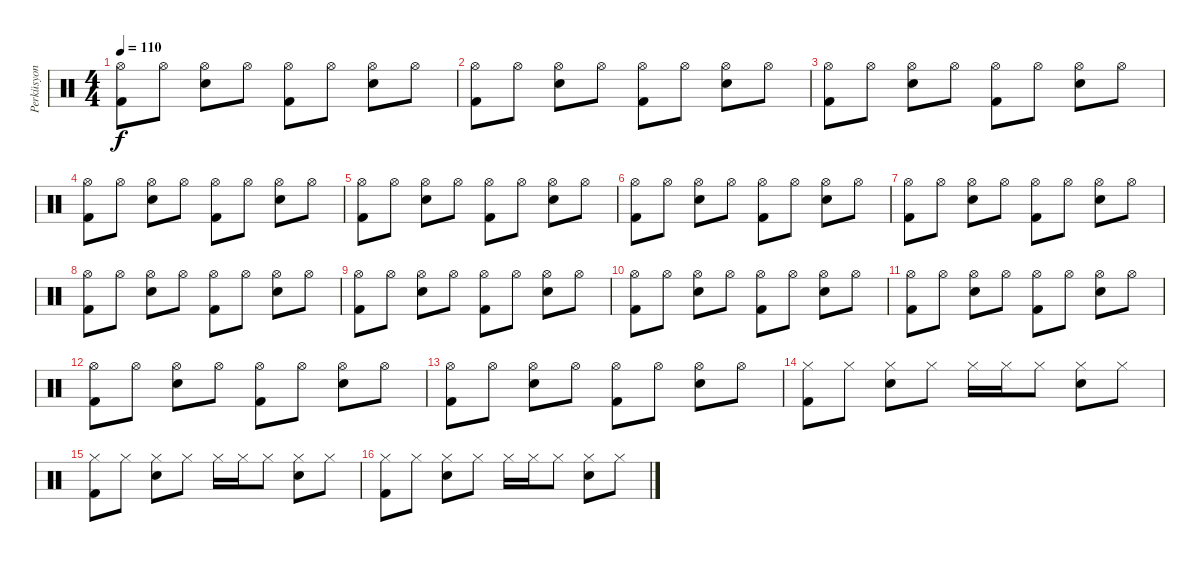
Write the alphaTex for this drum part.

\track ("Perküsyon" "Perküsyon") {instrument percussion}
\staff {score}
\articulation defaults
\ts (4 4)
\tempo 110
\clef neutral
\ks c
("Hi-Hat (open)" "Kick (hit) 2").8{dy f} "Hi-Hat (open)".8 ("Hi-Hat (open)" "Snare (hit) 2").8 "Hi-Hat (open)".8 ("Hi-Hat (open)" "Kick (hit) 2").8 "Hi-Hat (open)".8 ("Hi-Hat (open)" "Snare (hit) 2").8 "Hi-Hat (open)".8 |
("Hi-Hat (open)" "Kick (hit) 2").8 "Hi-Hat (open)".8 ("Hi-Hat (open)" "Snare (hit) 2").8 "Hi-Hat (open)".8 ("Hi-Hat (open)" "Kick (hit) 2").8 "Hi-Hat (open)".8 ("Hi-Hat (open)" "Snare (hit) 2").8 "Hi-Hat (open)".8 |
("Hi-Hat (open)" "Kick (hit) 2").8 "Hi-Hat (open)".8 ("Hi-Hat (open)" "Snare (hit) 2").8 "Hi-Hat (open)".8 ("Hi-Hat (open)" "Kick (hit) 2").8 "Hi-Hat (open)".8 ("Hi-Hat (open)" "Snare (hit) 2").8 "Hi-Hat (open)".8 |
("Hi-Hat (open)" "Kick (hit) 2").8 "Hi-Hat (open)".8 ("Hi-Hat (open)" "Snare (hit) 2").8 "Hi-Hat (open)".8 ("Hi-Hat (open)" "Kick (hit) 2").8 "Hi-Hat (open)".8 ("Hi-Hat (open)" "Snare (hit) 2").8 "Hi-Hat (open)".8 |
("Hi-Hat (open)" "Kick (hit) 2").8 "Hi-Hat (open)".8 ("Hi-Hat (open)" "Snare (hit) 2").8 "Hi-Hat (open)".8 ("Hi-Hat (open)" "Kick (hit) 2").8 "Hi-Hat (open)".8 ("Hi-Hat (open)" "Snare (hit) 2").8 "Hi-Hat (open)".8 |
("Hi-Hat (open)" "Kick (hit) 2").8 "Hi-Hat (open)".8 ("Hi-Hat (open)" "Snare (hit) 2").8 "Hi-Hat (open)".8 ("Hi-Hat (open)" "Kick (hit) 2").8 "Hi-Hat (open)".8 ("Hi-Hat (open)" "Snare (hit) 2").8 "Hi-Hat (open)".8 |
("Hi-Hat (open)" "Kick (hit) 2").8 "Hi-Hat (open)".8 ("Hi-Hat (open)" "Snare (hit) 2").8 "Hi-Hat (open)".8 ("Hi-Hat (open)" "Kick (hit) 2").8 "Hi-Hat (open)".8 ("Hi-Hat (open)" "Snare (hit) 2").8 "Hi-Hat (open)".8 |
("Hi-Hat (open)" "Kick (hit) 2").8 "Hi-Hat (open)".8 ("Hi-Hat (open)" "Snare (hit) 2").8 "Hi-Hat (open)".8 ("Hi-Hat (open)" "Kick (hit) 2").8 "Hi-Hat (open)".8 ("Hi-Hat (open)" "Snare (hit) 2").8 "Hi-Hat (open)".8 |
("Hi-Hat (open)" "Kick (hit) 2").8 "Hi-Hat (open)".8 ("Hi-Hat (open)" "Snare (hit) 2").8 "Hi-Hat (open)".8 ("Hi-Hat (open)" "Kick (hit) 2").8 "Hi-Hat (open)".8 ("Hi-Hat (open)" "Snare (hit) 2").8 "Hi-Hat (open)".8 |
("Hi-Hat (open)" "Kick (hit) 2").8 "Hi-Hat (open)".8 ("Hi-Hat (open)" "Snare (hit) 2").8 "Hi-Hat (open)".8 ("Hi-Hat (open)" "Kick (hit) 2").8 "Hi-Hat (open)".8 ("Hi-Hat (open)" "Snare (hit) 2").8 "Hi-Hat (open)".8 |
("Hi-Hat (open)" "Kick (hit) 2").8 "Hi-Hat (open)".8 ("Hi-Hat (open)" "Snare (hit) 2").8 "Hi-Hat (open)".8 ("Hi-Hat (open)" "Kick (hit) 2").8 "Hi-Hat (open)".8 ("Hi-Hat (open)" "Snare (hit) 2").8 "Hi-Hat (open)".8 |
("Hi-Hat (open)" "Kick (hit) 2").8 "Hi-Hat (open)".8 ("Hi-Hat (open)" "Snare (hit) 2").8 "Hi-Hat (open)".8 ("Hi-Hat (open)" "Kick (hit) 2").8 "Hi-Hat (open)".8 ("Hi-Hat (open)" "Snare (hit) 2").8 "Hi-Hat (open)".8 |
("Hi-Hat (open)" "Kick (hit) 2").8 "Hi-Hat (open)".8 ("Hi-Hat (open)" "Snare (hit) 2").8 "Hi-Hat (open)".8 ("Hi-Hat (open)" "Kick (hit) 2").8 "Hi-Hat (open)".8 ("Hi-Hat (open)" "Snare (hit) 2").8 "Hi-Hat (open)".8 |
("Hi-Hat (closed)" "Kick (hit) 2").8 "Hi-Hat (closed)".8 ("Hi-Hat (closed)" "Snare (hit) 2").8 "Hi-Hat (closed)".8 "Hi-Hat (closed)".16 "Hi-Hat (closed)".16 "Hi-Hat (closed)".8 ("Hi-Hat (closed)" "Snare (hit) 2").8 "Hi-Hat (closed)".8 |
("Hi-Hat (closed)" "Kick (hit) 2").8 "Hi-Hat (closed)".8 ("Hi-Hat (closed)" "Snare (hit) 2").8 "Hi-Hat (closed)".8 "Hi-Hat (closed)".16 "Hi-Hat (closed)".16 "Hi-Hat (closed)".8 ("Hi-Hat (closed)" "Snare (hit) 2").8 "Hi-Hat (closed)".8 |
("Hi-Hat (closed)" "Kick (hit) 2").8 "Hi-Hat (closed)".8 ("Hi-Hat (closed)" "Snare (hit) 2").8 "Hi-Hat (closed)".8 "Hi-Hat (closed)".16 "Hi-Hat (closed)".16 "Hi-Hat (closed)".8 ("Hi-Hat (closed)" "Snare (hit) 2").8 "Hi-Hat (closed)".8
